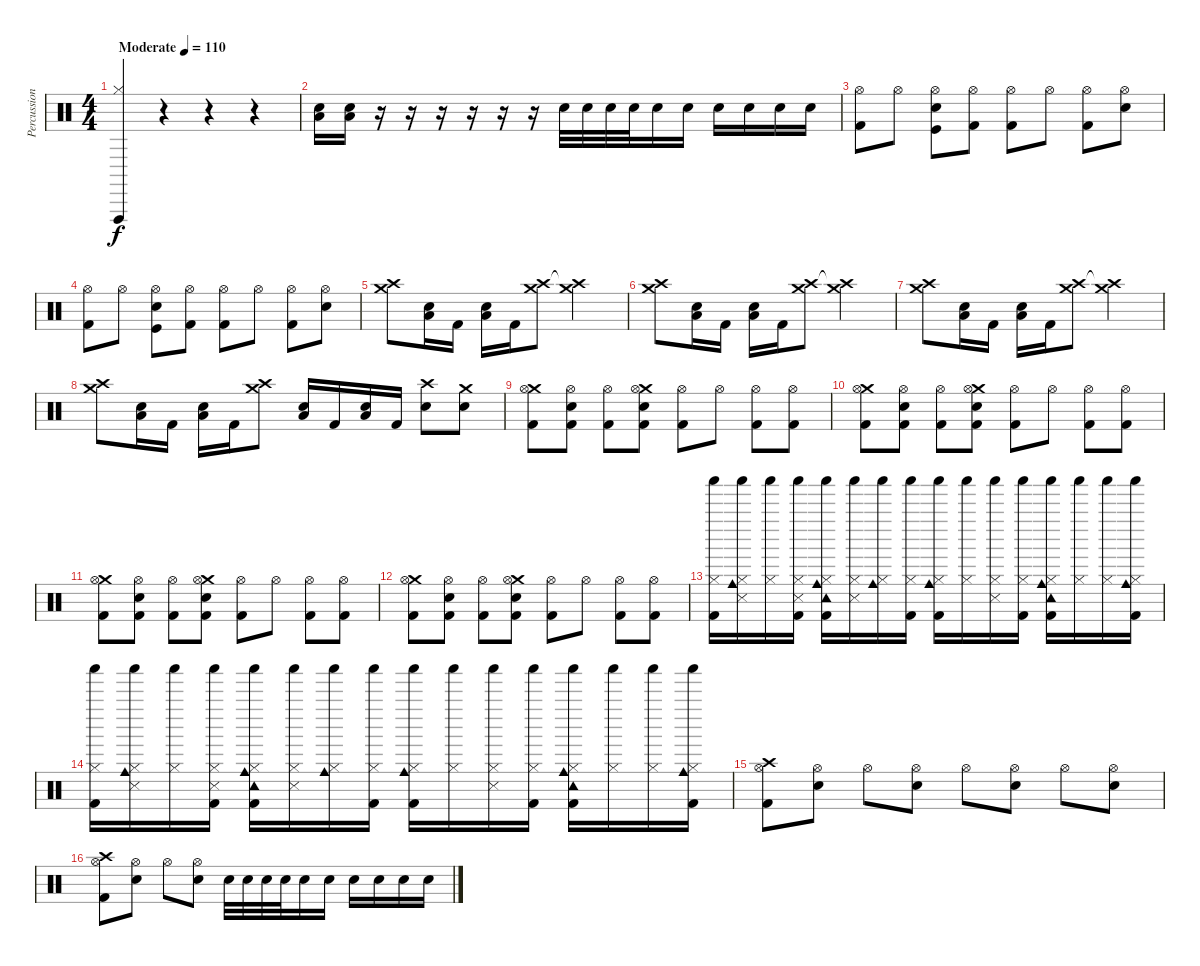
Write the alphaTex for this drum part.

\track ("Percussion" "Percussion") {instrument percussion}
\staff {score}
\articulation defaults
\ts (4 4)
\tempo (110 "Moderate")
\clef neutral
\ks c
("Hi-Hat (closed)" "Vibraslap (hit)").4{dy f} r.4 r.4 r.4 |
("Electric Snare (hit)" "Low Floor Tom (hit)").16 ("Electric Snare (hit)" "Low Floor Tom (hit)").16 r.16 r.16 r.16 r.16 r.16 r.16 "Snare (hit) 2".32 "Snare (hit) 2".32 "Snare (hit) 2".32 "Snare (hit) 2".32 "Snare (hit) 2".16 "Snare (hit) 2".16 "Snare (hit) 2".16 "Snare (hit) 2".16 "Snare (hit) 2".16 "Snare (hit) 2".16 |
("Hi-Hat (open)" "Kick (hit) 2").8 "Hi-Hat (open)".8 ("Hi-Hat (open)" "Snare (hit) 2" "Kick (hit)").8 ("Hi-Hat (open)" "Kick (hit) 2").8 ("Hi-Hat (open)" "Kick (hit) 2").8 "Hi-Hat (open)".8 ("Hi-Hat (open)" "Kick (hit) 2").8 ("Hi-Hat (open)" "Snare (hit) 2").8 |
("Hi-Hat (open)" "Kick (hit) 2").8 "Hi-Hat (open)".8 ("Hi-Hat (open)" "Snare (hit) 2" "Kick (hit)").8 ("Hi-Hat (open)" "Kick (hit) 2").8 ("Hi-Hat (open)" "Kick (hit) 2").8 "Hi-Hat (open)".8 ("Hi-Hat (open)" "Kick (hit) 2").8 ("Hi-Hat (open)" "Snare (hit) 2").8 |
("Crash high (hit)" "Crash medium (hit)").8 ("Snare (hit) 2" "Low Floor Tom (hit)").16 "Kick (hit) 2".16 ("Snare (hit) 2" "Low Floor Tom (hit)").16 "Kick (hit) 2".16 ("Crash high (hit)" "Crash medium (hit)").8 ("Crash high (hit)"{t} "Crash medium (hit)").2 |
("Crash high (hit)" "Crash medium (hit)").8 ("Snare (hit) 2" "Low Floor Tom (hit)").16 "Kick (hit) 2".16 ("Snare (hit) 2" "Low Floor Tom (hit)").16 "Kick (hit) 2".16 ("Crash high (hit)" "Crash medium (hit)").8 ("Crash high (hit)"{t} "Crash medium (hit)").2 |
("Crash high (hit)" "Crash medium (hit)").8 ("Snare (hit) 2" "Low Floor Tom (hit)").16 "Kick (hit) 2".16 ("Snare (hit) 2" "Low Floor Tom (hit)").16 "Kick (hit) 2".16 ("Crash high (hit)" "Crash medium (hit)").8 ("Crash high (hit)"{t} "Crash medium (hit)").2 |
("Crash high (hit)" "Crash medium (hit)").8 ("Snare (hit) 2" "Low Floor Tom (hit)").16 "Kick (hit) 2".16 ("Snare (hit) 2" "Low Floor Tom (hit)").16 "Kick (hit) 2".16 ("Crash high (hit)" "Crash medium (hit)").8 ("Snare (hit) 2" "Low Floor Tom (hit)").16 "Kick (hit) 2".16 ("Snare (hit) 2" "Low Floor Tom (hit)").16 "Kick (hit) 2".16 ("Crash high (hit)" "Snare (hit) 2").8 ("Crash medium (hit)" "Snare (hit) 2").8 |
("Crash medium (hit)" "Hi-Hat (open)" "Kick (hit) 2").8 ("Hi-Hat (open)" "Snare (hit) 2" "Kick (hit) 2").8 ("Hi-Hat (open)" "Kick (hit) 2").8 ("Crash medium (hit)" "Hi-Hat (open)" "Snare (hit) 2" "Kick (hit) 2").8 ("Hi-Hat (open)" "Kick (hit) 2").8 "Hi-Hat (open)".8 ("Hi-Hat (open)" "Kick (hit) 2").8 ("Hi-Hat (open)" "Kick (hit) 2").8 |
("Crash medium (hit)" "Hi-Hat (open)" "Kick (hit) 2").8 ("Hi-Hat (open)" "Snare (hit) 2" "Kick (hit) 2").8 ("Hi-Hat (open)" "Kick (hit) 2").8 ("Crash medium (hit)" "Hi-Hat (open)" "Snare (hit) 2" "Kick (hit) 2").8 ("Hi-Hat (open)" "Kick (hit) 2").8 "Hi-Hat (open)".8 ("Hi-Hat (open)" "Kick (hit) 2").8 ("Hi-Hat (open)" "Kick (hit) 2").8 |
("Crash medium (hit)" "Hi-Hat (open)" "Kick (hit) 2").8 ("Hi-Hat (open)" "Snare (hit) 2" "Kick (hit) 2").8 ("Hi-Hat (open)" "Kick (hit) 2").8 ("Crash medium (hit)" "Hi-Hat (open)" "Snare (hit) 2" "Kick (hit) 2").8 ("Hi-Hat (open)" "Kick (hit) 2").8 "Hi-Hat (open)".8 ("Hi-Hat (open)" "Kick (hit) 2").8 ("Hi-Hat (open)" "Kick (hit) 2").8 |
("Crash medium (hit)" "Hi-Hat (open)" "Kick (hit) 2").8 ("Hi-Hat (open)" "Snare (hit) 2" "Kick (hit) 2").8 ("Hi-Hat (open)" "Kick (hit) 2").8 ("Crash medium (hit)" "Hi-Hat (open)" "Snare (hit) 2" "Kick (hit) 2").8 ("Hi-Hat (open)" "Kick (hit) 2").8 "Hi-Hat (open)".8 ("Hi-Hat (open)" "Kick (hit) 2").8 ("Hi-Hat (open)" "Kick (hit) 2").8 |
("Hi-Hat (closed)" "Shaker (hit)" "Kick (hit) 2").16 ("Hi-Hat (closed)" "Shaker (hit)" "Cowbell medium (hit)" "Snare (side stick) 3").16 ("Hi-Hat (closed)" "Shaker (hit)").16 ("Hi-Hat (closed)" "Shaker (hit)" "Snare (side stick) 3" "Kick (hit) 2").16 ("Hi-Hat (closed)" "Shaker (hit)" "Cowbell medium (hit)" "Tambourine (hit)" "Kick (hit) 2").16 ("Hi-Hat (closed)" "Shaker (hit)" "Snare (side stick) 3").16 ("Hi-Hat (closed)" "Shaker (hit)" "Cowbell medium (hit)").16 ("Hi-Hat (closed)" "Shaker (hit)" "Kick (hit) 2").16 ("Hi-Hat (closed)" "Shaker (hit)" "Cowbell medium (hit)" "Kick (hit) 2").16 ("Hi-Hat (closed)" "Shaker (hit)").16 ("Hi-Hat (closed)" "Shaker (hit)" "Snare (side stick) 3").16 ("Hi-Hat (closed)" "Shaker (hit)" "Kick (hit) 2").16 ("Hi-Hat (closed)" "Shaker (hit)" "Cowbell medium (hit)" "Tambourine (hit)" "Kick (hit) 2").16 ("Hi-Hat (closed)" "Shaker (hit)").16 ("Hi-Hat (closed)" "Shaker (hit)").16 ("Hi-Hat (closed)" "Shaker (hit)" "Cowbell medium (hit)" "Kick (hit) 2").16 |
("Hi-Hat (closed)" "Shaker (hit)" "Kick (hit) 2").16 ("Hi-Hat (closed)" "Shaker (hit)" "Cowbell medium (hit)" "Snare (side stick) 3").16 ("Hi-Hat (closed)" "Shaker (hit)").16 ("Hi-Hat (closed)" "Shaker (hit)" "Snare (side stick) 3" "Kick (hit) 2").16 ("Hi-Hat (closed)" "Shaker (hit)" "Cowbell medium (hit)" "Tambourine (hit)" "Kick (hit) 2").16 ("Hi-Hat (closed)" "Shaker (hit)" "Snare (side stick) 3").16 ("Hi-Hat (closed)" "Shaker (hit)" "Cowbell medium (hit)").16 ("Hi-Hat (closed)" "Shaker (hit)" "Kick (hit) 2").16 ("Hi-Hat (closed)" "Shaker (hit)" "Cowbell medium (hit)" "Kick (hit) 2").16 ("Hi-Hat (closed)" "Shaker (hit)").16 ("Hi-Hat (closed)" "Shaker (hit)" "Snare (side stick) 3").16 ("Hi-Hat (closed)" "Shaker (hit)" "Kick (hit) 2").16 ("Hi-Hat (closed)" "Shaker (hit)" "Cowbell medium (hit)" "Tambourine (hit)" "Kick (hit) 2").16 ("Hi-Hat (closed)" "Shaker (hit)").16 ("Hi-Hat (closed)" "Shaker (hit)").16 ("Hi-Hat (closed)" "Shaker (hit)" "Cowbell medium (hit)" "Kick (hit) 2").16 |
("Hi-Hat (open)" "Crash high (hit)" "Kick (hit) 2").8 ("Hi-Hat (open)" "Snare (hit) 2").8 "Hi-Hat (open)".8 ("Hi-Hat (open)" "Snare (hit) 2").8 "Hi-Hat (open)".8 ("Hi-Hat (open)" "Snare (hit) 2").8 "Hi-Hat (open)".8 ("Hi-Hat (open)" "Snare (hit) 2").8 |
("Hi-Hat (open)" "Crash high (hit)" "Kick (hit) 2").8 ("Hi-Hat (open)" "Snare (hit) 2").8 "Hi-Hat (open)".8 ("Hi-Hat (open)" "Snare (hit) 2").8 "Snare (hit) 2".32 "Snare (hit) 2".32 "Snare (hit) 2".32 "Snare (hit) 2".32 "Snare (hit) 2".16 "Snare (hit) 2".16 "Snare (hit) 2".16 "Snare (hit) 2".16 "Snare (hit) 2".16 "Snare (hit) 2".16
